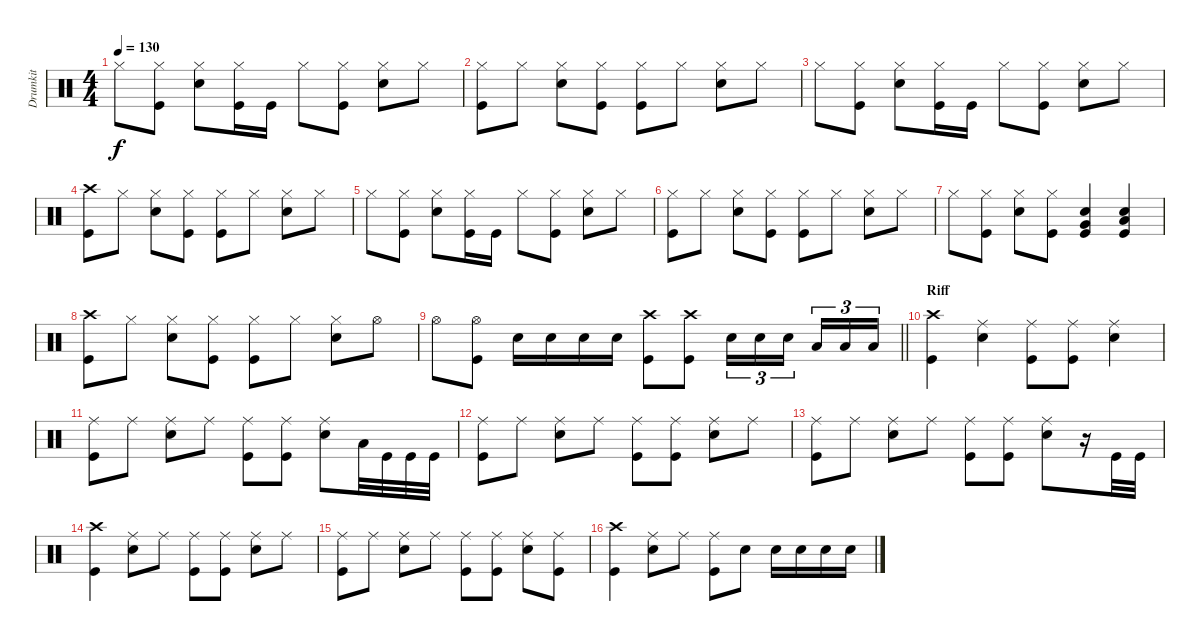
\track ("Drumkit" "Drumkit") {instrument percussion}
\staff {score}
\articulation defaults
\ts (4 4)
\tempo 130
\clef neutral
\ks c "Hi-Hat (closed)".8{dy f}
("Hi-Hat (closed)" "Kick (hit)").8 ("Hi-Hat (closed)" "Snare (hit) 2").8 ("Hi-Hat (closed)" "Kick (hit)").16 "Kick (hit)".16 "Hi-Hat (closed)".8 ("Hi-Hat (closed)" "Kick (hit)").8 ("Hi-Hat (closed)" "Snare (hit) 2").8 "Hi-Hat (closed)".8 |
("Hi-Hat (closed)" "Kick (hit)").8 "Hi-Hat (closed)".8 ("Hi-Hat (closed)" "Snare (hit) 2").8 ("Hi-Hat (closed)" "Kick (hit)").8 ("Hi-Hat (closed)" "Kick (hit)").8 "Hi-Hat (closed)".8 ("Hi-Hat (closed)" "Snare (hit) 2").8 "Hi-Hat (closed)".8 |
"Hi-Hat (closed)".8 ("Hi-Hat (closed)" "Kick (hit)").8 ("Hi-Hat (closed)" "Snare (hit) 2").8 ("Hi-Hat (closed)" "Kick (hit)").16 "Kick (hit)".16 "Hi-Hat (closed)".8 ("Hi-Hat (closed)" "Kick (hit)").8 ("Hi-Hat (closed)" "Snare (hit) 2").8 "Hi-Hat (closed)".8 |
("Kick (hit)" "Crash high (hit)").8 "Hi-Hat (closed)".8 ("Hi-Hat (closed)" "Snare (hit) 2").8 ("Hi-Hat (closed)" "Kick (hit)").8 ("Hi-Hat (closed)" "Kick (hit)").8 "Hi-Hat (closed)".8 ("Hi-Hat (closed)" "Snare (hit) 2").8 "Hi-Hat (closed)".8 |
"Hi-Hat (closed)".8 ("Hi-Hat (closed)" "Kick (hit)").8 ("Hi-Hat (closed)" "Snare (hit) 2").8 ("Hi-Hat (closed)" "Kick (hit)").16 "Kick (hit)".16 "Hi-Hat (closed)".8 ("Hi-Hat (closed)" "Kick (hit)").8 ("Hi-Hat (closed)" "Snare (hit) 2").8 "Hi-Hat (closed)".8 |
("Hi-Hat (closed)" "Kick (hit)").8 "Hi-Hat (closed)".8 ("Hi-Hat (closed)" "Snare (hit) 2").8 ("Hi-Hat (closed)" "Kick (hit)").8 ("Hi-Hat (closed)" "Kick (hit)").8 "Hi-Hat (closed)".8 ("Hi-Hat (closed)" "Snare (hit) 2").8 "Hi-Hat (closed)".8 |
"Hi-Hat (closed)".8 ("Hi-Hat (closed)" "Kick (hit)").8 ("Hi-Hat (closed)" "Snare (hit) 2").8 ("Hi-Hat (closed)" "Kick (hit)").8 ("Snare (hit) 2" "Very Low Tom (hit)" "Kick (hit)").4 ("Snare (hit) 2" "Low Floor Tom (hit)" "Kick (hit)").4 |
("Kick (hit)" "Crash high (hit)").8 "Hi-Hat (closed)".8 ("Hi-Hat (closed)" "Snare (hit) 2").8 ("Hi-Hat (closed)" "Kick (hit)").8 ("Hi-Hat (closed)" "Kick (hit)").8 "Hi-Hat (closed)".8 ("Hi-Hat (closed)" "Snare (hit) 2").8 "Hi-Hat (open)".8 |
\barLineRight lightlight "Hi-Hat (open)".8
("Hi-Hat (open)" "Kick (hit)").8 "Snare (hit) 2".16 "Snare (hit) 2".16 "Snare (hit) 2".16 "Snare (hit) 2".16 ("Crash high (hit)" "Kick (hit)").8 ("Crash high (hit)" "Kick (hit)").8 "Snare (hit) 2".16{tu (3 2)} "Snare (hit) 2".16{tu (3 2)} "Snare (hit) 2".16{tu (3 2) beam splitsecondary} "Low Tom (hit)".16{tu (3 2)} "Low Tom (hit)".16{tu (3 2)} "Low Tom (hit)".16{tu (3 2)} |
\section ("" "Riff")
("Crash high (hit)" "Kick (hit)").4 ("Snare (hit) 2" "Ride (middle)").4 ("Ride (middle)" "Kick (hit)").8 ("Ride (middle)" "Kick (hit)").8 ("Ride (middle)" "Snare (hit) 2").4 |
("Ride (middle)" "Kick (hit)").8 "Ride (middle)".8 ("Ride (middle)" "Snare (hit) 2").8 "Ride (middle)".8 ("Ride (middle)" "Kick (hit)").8 ("Ride (middle)" "Kick (hit)").8 ("Ride (middle)" "Snare (hit) 2").8 "Low Tom (hit)".32 "Kick (hit)".32 "Kick (hit)".32 "Kick (hit)".32 |
("Ride (middle)" "Kick (hit)").8 "Ride (middle)".8 ("Ride (middle)" "Snare (hit) 2").8 "Ride (middle)".8 ("Ride (middle)" "Kick (hit)").8 ("Ride (middle)" "Kick (hit)").8 ("Ride (middle)" "Snare (hit) 2").8 "Ride (middle)".8 |
("Ride (middle)" "Kick (hit)").8 "Ride (middle)".8 ("Ride (middle)" "Snare (hit) 2").8 "Ride (middle)".8 ("Ride (middle)" "Kick (hit)").8 ("Ride (middle)" "Kick (hit)").8 ("Ride (middle)" "Snare (hit) 2").8 r.16 "Kick (hit)".32 "Kick (hit)".32 |
("Crash high (hit)" "Kick (hit)").4 ("Ride (middle)" "Snare (hit) 2").8 "Ride (middle)".8 ("Ride (middle)" "Kick (hit)").8 ("Ride (middle)" "Kick (hit)").8 ("Ride (middle)" "Snare (hit) 2").8 "Ride (middle)".8 |
("Ride (middle)" "Kick (hit)").8 "Ride (middle)".8 ("Ride (middle)" "Snare (hit) 2").8 "Ride (middle)".8 ("Ride (middle)" "Kick (hit)").8 ("Ride (middle)" "Kick (hit)").8 ("Ride (middle)" "Snare (hit) 2").8 ("Ride (middle)" "Kick (hit)").8 |
("Crash high (hit)" "Kick (hit)").4 ("Ride (middle)" "Snare (hit) 2").8 "Ride (middle)".8 ("Ride (middle)" "Kick (hit)").8 "Snare (hit) 2".8 "Snare (hit) 2".16 "Snare (hit) 2".16 "Snare (hit) 2".16 "Snare (hit) 2".16
